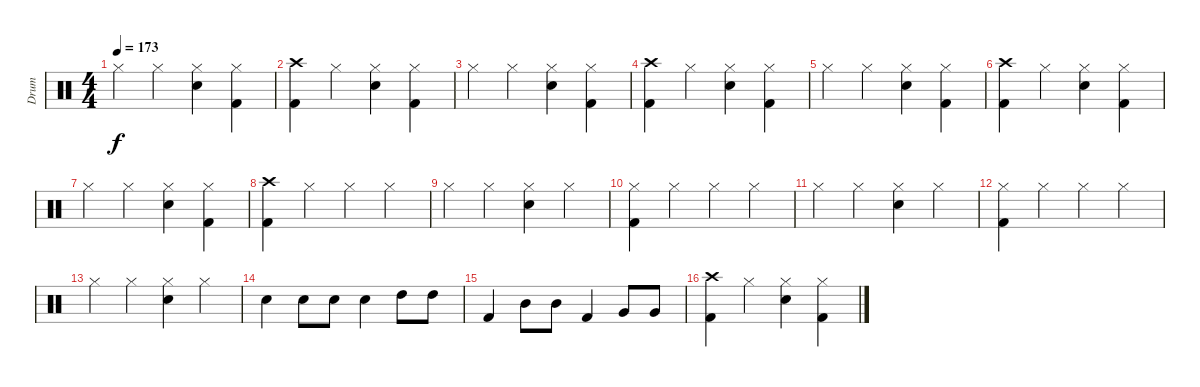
\track ("Drum" "Drum") {instrument percussion}
\staff {score}
\articulation defaults
\ts (4 4)
\tempo 173
\clef neutral
\ks c "Hi-Hat (closed)".4{dy f} "Hi-Hat (closed)".4
("Hi-Hat (closed)" "Electric Snare (hit)").4 ("Hi-Hat (closed)" "Kick (hit) 2").4 |
("Crash high (hit)" "Kick (hit) 2").4 "Hi-Hat (closed)".4 ("Hi-Hat (closed)" "Electric Snare (hit)").4 ("Hi-Hat (closed)" "Kick (hit) 2").4 |
"Hi-Hat (closed)".4 "Hi-Hat (closed)".4 ("Hi-Hat (closed)" "Electric Snare (hit)").4 ("Hi-Hat (closed)" "Kick (hit) 2").4 |
("Crash high (hit)" "Kick (hit) 2").4 "Hi-Hat (closed)".4 ("Hi-Hat (closed)" "Electric Snare (hit)").4 ("Hi-Hat (closed)" "Kick (hit) 2").4 |
"Hi-Hat (closed)".4 "Hi-Hat (closed)".4 ("Hi-Hat (closed)" "Electric Snare (hit)").4 ("Hi-Hat (closed)" "Kick (hit) 2").4 |
("Crash high (hit)" "Kick (hit) 2").4 "Hi-Hat (closed)".4 ("Hi-Hat (closed)" "Electric Snare (hit)").4 ("Hi-Hat (closed)" "Kick (hit) 2").4 |
"Hi-Hat (closed)".4 "Hi-Hat (closed)".4 ("Hi-Hat (closed)" "Electric Snare (hit)").4 ("Hi-Hat (closed)" "Kick (hit) 2").4 |
("Crash high (hit)" "Kick (hit) 2").4 "Hi-Hat (closed)".4 "Hi-Hat (closed)".4 "Hi-Hat (closed)".4 |
"Hi-Hat (closed)".4 "Hi-Hat (closed)".4 ("Hi-Hat (closed)" "Electric Snare (hit)").4 "Hi-Hat (closed)".4 |
("Hi-Hat (closed)" "Kick (hit) 2").4 "Hi-Hat (closed)".4 "Hi-Hat (closed)".4 "Hi-Hat (closed)".4 |
"Hi-Hat (closed)".4 "Hi-Hat (closed)".4 ("Hi-Hat (closed)" "Electric Snare (hit)").4 "Hi-Hat (closed)".4 |
("Hi-Hat (closed)" "Kick (hit) 2").4 "Hi-Hat (closed)".4 "Hi-Hat (closed)".4 "Hi-Hat (closed)".4 |
"Hi-Hat (closed)".4 "Hi-Hat (closed)".4 ("Hi-Hat (closed)" "Electric Snare (hit)").4 "Hi-Hat (closed)".4 |
"Electric Snare (hit)".4 "Electric Snare (hit)".8 "Electric Snare (hit)".8 "Electric Snare (hit)".4 "High Tom (hit)".8 "High Tom (hit)".8 |
"Kick (hit) 2".4 "Mid Tom (hit)".8 "Mid Tom (hit)".8 "Kick (hit) 2".4 "Very Low Tom (hit)".8 "Very Low Tom (hit)".8 |
("Crash high (hit)" "Kick (hit) 2").4 "Hi-Hat (closed)".4 ("Hi-Hat (closed)" "Electric Snare (hit)").4 ("Hi-Hat (closed)" "Kick (hit) 2").4
